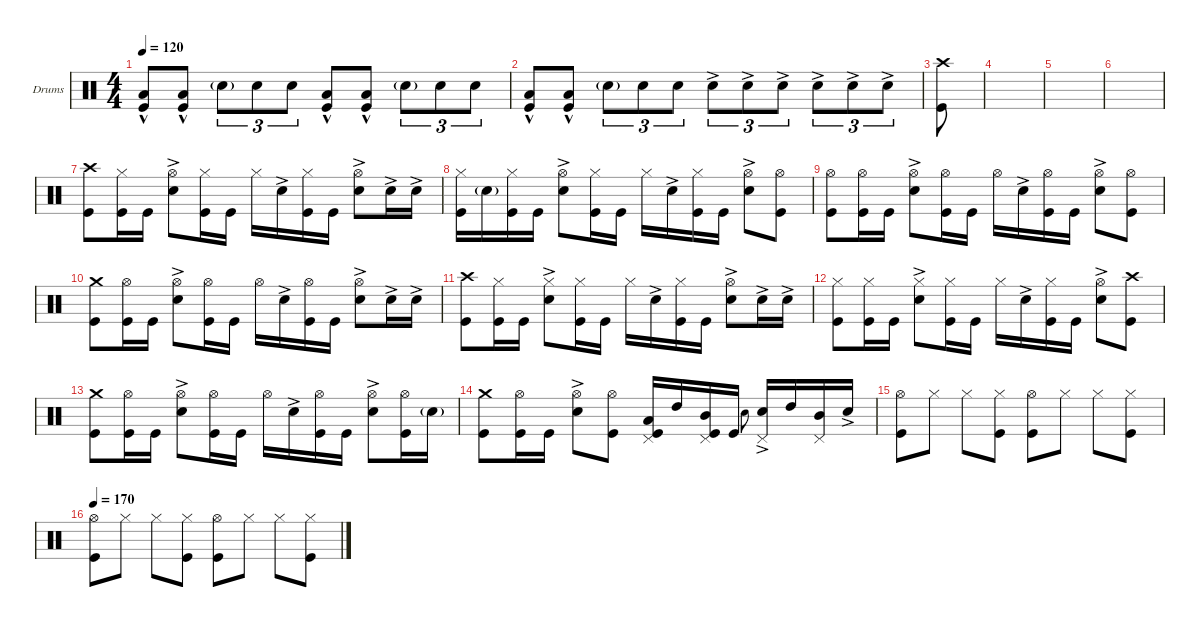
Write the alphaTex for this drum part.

\defaultSystemsLayout 4
\hideDynamics
\bracketExtendMode groupsimilarinstruments
\firstSystemTrackNameOrientation horizontal
\otherSystemsTrackNameOrientation horizontal
\track ("Drumkit" "Drums") {instrument percussion}
\staff {score}
\articulation defaults
\ts (4 4)
\tempo 120
\clef neutral
\ks c
("Kick (hit)"{hac} "Low Tom (hit)").8{dy f} ("Kick (hit)"{hac} "Low Tom (hit)").8 "Snare (hit) 2"{g}.8{tu (3 2) dy mf} "Snare (hit) 2".8{tu (3 2) dy f} "Snare (hit) 2".8{tu (3 2)} ("Kick (hit)"{hac} "Low Tom (hit)").8 ("Kick (hit)"{hac} "Low Tom (hit)").8 "Snare (hit) 2"{g}.8{tu (3 2) dy mf} "Snare (hit) 2".8{tu (3 2) dy f} "Snare (hit) 2".8{tu (3 2)} |
("Kick (hit)"{hac} "Low Tom (hit)").8 ("Kick (hit)"{hac} "Low Tom (hit)").8 "Snare (hit) 2"{g}.8{tu (3 2) dy mf} "Snare (hit) 2".8{tu (3 2) dy f} "Snare (hit) 2".8{tu (3 2)} "Snare (hit) 2"{ac}.8{tu (3 2)} "Snare (hit) 2"{ac}.8{tu (3 2)} "Snare (hit) 2"{ac}.8{tu (3 2)} "Snare (hit) 2"{ac}.8{tu (3 2)} "Snare (hit) 2"{ac}.8{tu (3 2)} "Snare (hit) 2"{ac}.8{tu (3 2)} |
("Crash high (hit)" "Kick (hit)").8 |
|
|
|
\scale
0.474178 ("Kick (hit)" "Crash high (hit)").8 ("Kick (hit)" "Hi-Hat (closed)").16 "Kick (hit)".16 ("Snare (hit) 2"{ac} "Hi-Hat (open)").8 ("Kick (hit)" "Hi-Hat (closed)").16 "Kick (hit)".16 "Hi-Hat (closed)".16 "Snare (hit) 2"{ac}.16 ("Kick (hit)" "Hi-Hat (closed)").16 "Kick (hit)".16 ("Snare (hit) 2"{ac} "Hi-Hat (open)").8 "Snare (hit) 2"{ac}.16 "Snare (hit) 2"{ac}.16 |
("Kick (hit)" "Hi-Hat (closed)").16 "Snare (hit) 2"{g}.16 ("Kick (hit)" "Hi-Hat (closed)").16 "Kick (hit)".16 ("Snare (hit) 2"{ac} "Hi-Hat (open)").8 ("Kick (hit)" "Hi-Hat (closed)").16 "Kick (hit)".16 "Hi-Hat (closed)".16 "Snare (hit) 2"{ac}.16 ("Kick (hit)" "Hi-Hat (closed)").16 "Kick (hit)".16 ("Snare (hit) 2"{ac} "Hi-Hat (open)").8 ("Kick (hit)" "Hi-Hat (open)").8 |
("Kick (hit)" "Hi-Hat (open)").8 ("Kick (hit)" "Hi-Hat (open)").16 "Kick (hit)".16 ("Snare (hit) 2"{ac} "Hi-Hat (open)").8 ("Kick (hit)" "Hi-Hat (open)").16 "Kick (hit)".16 "Hi-Hat (open)".16 "Snare (hit) 2"{ac}.16 ("Kick (hit)" "Hi-Hat (open)").16 "Kick (hit)".16 ("Snare (hit) 2"{ac} "Hi-Hat (open)").8 ("Kick (hit)" "Hi-Hat (open)").8 |
\scale
0.262911 ("Kick (hit)" "Crash medium (hit)").8 ("Kick (hit)" "Hi-Hat (open)").16 "Kick (hit)".16 ("Snare (hit) 2"{ac} "Hi-Hat (open)").8 ("Kick (hit)" "Hi-Hat (open)").16 "Kick (hit)".16 "Hi-Hat (open)".16 "Snare (hit) 2"{ac}.16 ("Kick (hit)" "Hi-Hat (open)").16 "Kick (hit)".16 ("Snare (hit) 2"{ac} "Hi-Hat (open)").8 "Snare (hit) 2"{ac}.16 "Snare (hit) 2"{ac}.16 |
\scale
0.262911 ("Kick (hit)" "Crash high (hit)").8 ("Kick (hit)" "Hi-Hat (closed)").16 "Kick (hit)".16 ("Snare (hit) 2"{ac} "Hi-Hat (closed)").8 ("Kick (hit)" "Hi-Hat (closed)").16 "Kick (hit)".16 "Hi-Hat (closed)".16 "Snare (hit) 2"{ac}.16 ("Kick (hit)" "Hi-Hat (closed)").16 "Kick (hit)".16 ("Snare (hit) 2"{ac} "Hi-Hat (open)").8 "Snare (hit) 2"{ac}.16 "Snare (hit) 2"{ac}.16 |
("Kick (hit)" "Hi-Hat (closed)").8 ("Kick (hit)" "Hi-Hat (closed)").16 "Kick (hit)".16 ("Snare (hit) 2"{ac} "Hi-Hat (closed)").8 ("Kick (hit)" "Hi-Hat (closed)").16 "Kick (hit)".16 "Hi-Hat (closed)".16 "Snare (hit) 2"{ac}.16 ("Kick (hit)" "Hi-Hat (closed)").16 "Kick (hit)".16 ("Snare (hit) 2"{ac} "Hi-Hat (open)").8 ("Kick (hit)" "Crash high (hit)").8 |
("Kick (hit)" "Crash medium (hit)").8 ("Kick (hit)" "Hi-Hat (open)").16 "Kick (hit)".16 ("Snare (hit) 2"{ac} "Hi-Hat (open)").8 ("Kick (hit)" "Hi-Hat (open)").16 "Kick (hit)".16 "Hi-Hat (open)".16 "Snare (hit) 2"{ac}.16 ("Kick (hit)" "Hi-Hat (open)").16 "Kick (hit)".16 ("Snare (hit) 2"{ac} "Hi-Hat (open)").8 ("Kick (hit)" "Hi-Hat (open)").16 "Snare (hit) 2"{g}.16 |
("Kick (hit)" "Crash medium (hit)").8 ("Kick (hit)" "Hi-Hat (open)").16 "Kick (hit)".16 ("Snare (hit) 2"{ac} "Hi-Hat (open)").8 ("Hi-Hat (open)" "Kick (hit)").8 ("Kick (hit)" "Low Tom (hit)" "Pedal Hi-Hat (hit)").16 "High Tom (hit)".16 ("Mid Tom (hit)" "Kick (hit)" "Pedal Hi-Hat (hit)").16 "Kick (hit)".16 "Snare (hit) 2".8{gr onbeat dy mf beam invert} ("Snare (hit) 2"{ac} "Pedal Hi-Hat (hit)").16{dy f} "High Tom (hit)".16 ("Mid Tom (hit)" "Pedal Hi-Hat (hit)").16 "Snare (hit) 2"{ac}.16 |
("Hi-Hat (open)" "Kick (hit)").8 "Hi-Hat (closed)".8 "Hi-Hat (closed)".8 ("Hi-Hat (closed)" "Kick (hit)").8 ("Hi-Hat (open)" "Kick (hit)").8 "Hi-Hat (closed)".8 "Hi-Hat (closed)".8 ("Hi-Hat (closed)" "Kick (hit)").8 |
\tempo 170
("Hi-Hat (open)" "Kick (hit)").8 "Hi-Hat (closed)".8 "Hi-Hat (closed)".8 ("Hi-Hat (closed)" "Kick (hit)").8 ("Hi-Hat (open)" "Kick (hit)").8 "Hi-Hat (closed)".8 "Hi-Hat (closed)".8 ("Hi-Hat (closed)" "Kick (hit)").8
